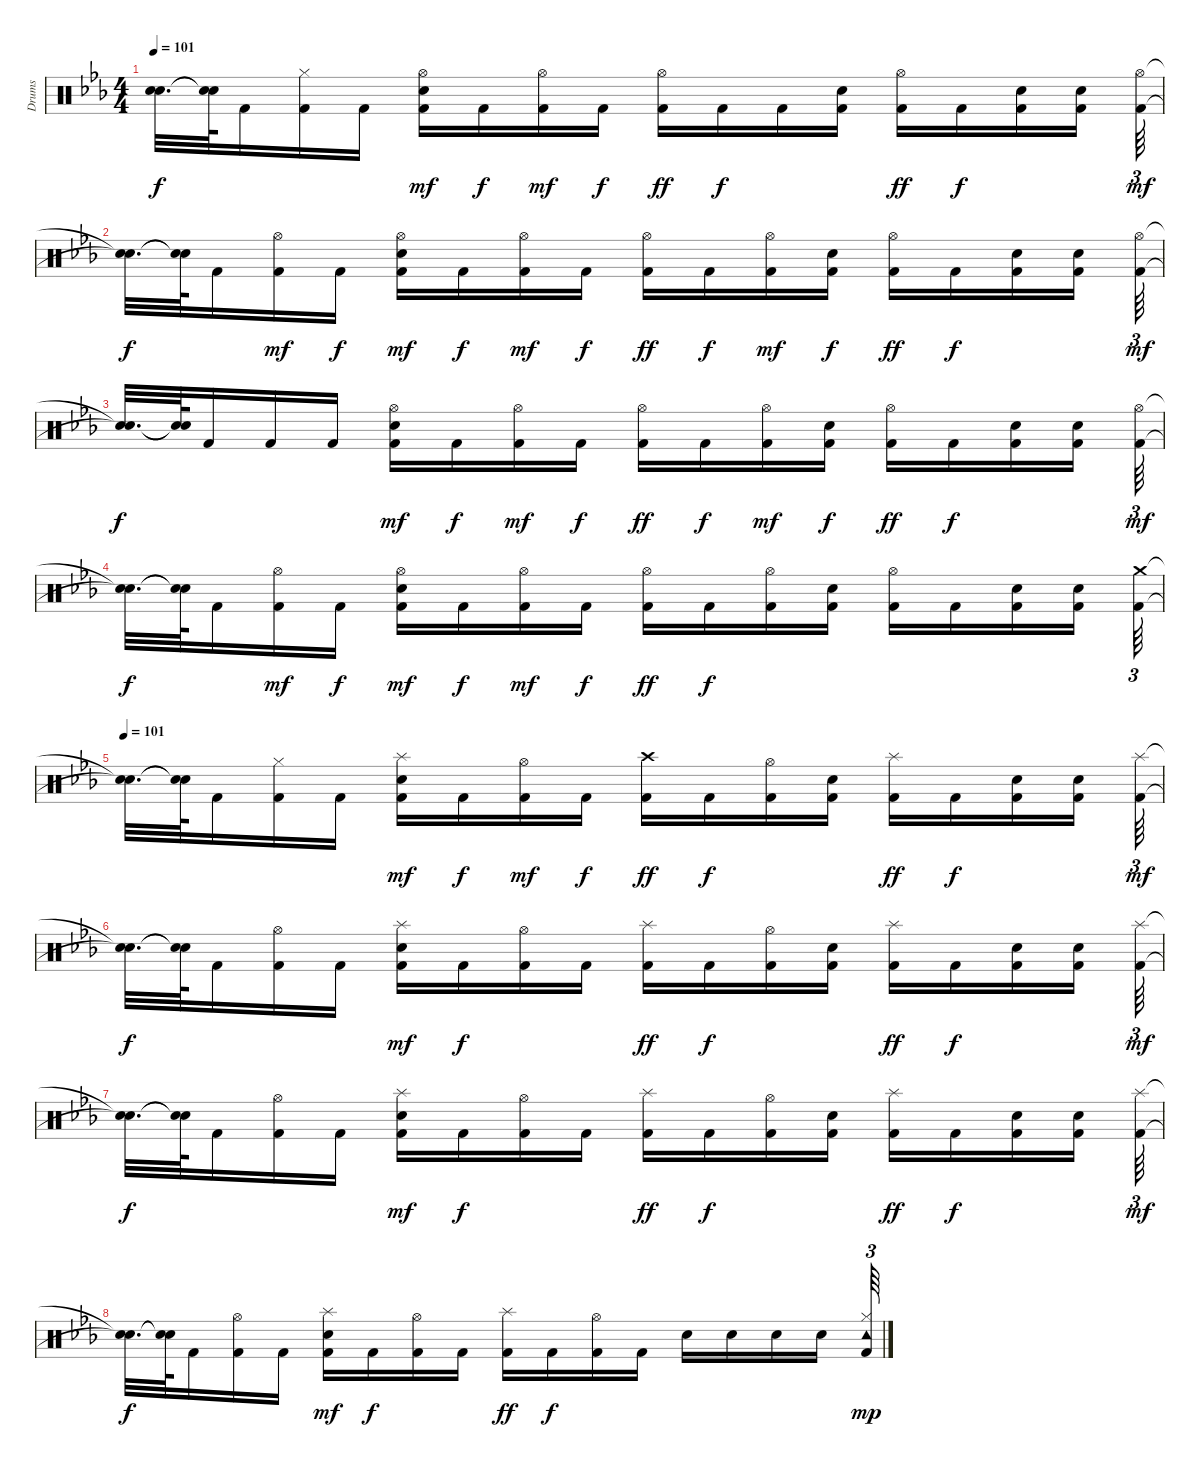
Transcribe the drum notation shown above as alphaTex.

\track ("Drums" "Drums") {instrument percussion}
\staff {score}
\articulation defaults
\ts (4 4)
\tempo 106
\tempo 101
\clef neutral
\ks cminor
("Snare (hit)"{t} "Snare (hit)"{t}).32{d dy f} ("Snare (hit)"{t} "Snare (hit)"{t}).64 "Kick (hit) 2".16 ("Kick (hit) 2" "Hi-Hat (closed)").16 "Kick (hit) 2".16 ("Kick (hit) 2" "Electric Snare (hit)" "Hi-Hat (open)").16{dy mf} "Kick (hit) 2".16{dy f} ("Kick (hit) 2" "Hi-Hat (open)").16{dy mf} "Kick (hit) 2".16{dy f} ("Kick (hit) 2" "Hi-Hat (open)").16{dy ff} "Kick (hit) 2".16{dy f} "Kick (hit) 2".16 ("Kick (hit) 2" "Electric Snare (hit)").16 ("Kick (hit) 2" "Hi-Hat (open)").16{dy ff} "Kick (hit) 2".16{dy f} ("Kick (hit) 2" "Electric Snare (hit)").16 ("Kick (hit) 2" "Electric Snare (hit)").16 ("Kick (hit) 2" "Hi-Hat (open)").64{tu (3 2) dy mf} |
("Snare (hit)"{t} "Snare (hit)"{t}).32{d dy f} ("Snare (hit)"{t} "Snare (hit)"{t}).64 "Kick (hit) 2".16 ("Kick (hit) 2" "Hi-Hat (open)").16{dy mf} "Kick (hit) 2".16{dy f} ("Kick (hit) 2" "Electric Snare (hit)" "Hi-Hat (open)").16{dy mf} "Kick (hit) 2".16{dy f} ("Kick (hit) 2" "Hi-Hat (open)").16{dy mf} "Kick (hit) 2".16{dy f} ("Kick (hit) 2" "Hi-Hat (open)").16{dy ff} "Kick (hit) 2".16{dy f} ("Kick (hit) 2" "Hi-Hat (open)").16{dy mf} ("Kick (hit) 2" "Electric Snare (hit)").16{dy f} ("Kick (hit) 2" "Hi-Hat (open)").16{dy ff} "Kick (hit) 2".16{dy f} ("Kick (hit) 2" "Electric Snare (hit)").16 ("Kick (hit) 2" "Electric Snare (hit)").16 ("Kick (hit) 2" "Hi-Hat (open)").64{tu (3 2) dy mf} |
("Snare (hit)"{t} "Snare (hit)"{t}).32{d dy f} ("Snare (hit)"{t} "Snare (hit)"{t}).64 "Kick (hit) 2".16 "Kick (hit) 2".16 "Kick (hit) 2".16 ("Kick (hit) 2" "Electric Snare (hit)" "Hi-Hat (open)").16{dy mf} "Kick (hit) 2".16{dy f} ("Kick (hit) 2" "Hi-Hat (open)").16{dy mf} "Kick (hit) 2".16{dy f} ("Kick (hit) 2" "Hi-Hat (open)").16{dy ff} "Kick (hit) 2".16{dy f} ("Kick (hit) 2" "Hi-Hat (open)").16{dy mf} ("Kick (hit) 2" "Electric Snare (hit)").16{dy f} ("Kick (hit) 2" "Hi-Hat (open)").16{dy ff} "Kick (hit) 2".16{dy f} ("Kick (hit) 2" "Electric Snare (hit)").16 ("Kick (hit) 2" "Electric Snare (hit)").16 ("Kick (hit) 2" "Hi-Hat (open)").64{tu (3 2) dy mf} |
("Snare (hit)"{t} "Snare (hit)"{t}).32{d dy f} ("Snare (hit)"{t} "Snare (hit)"{t}).64 "Kick (hit) 2".16 ("Kick (hit) 2" "Hi-Hat (open)").16{dy mf} "Kick (hit) 2".16{dy f} ("Kick (hit) 2" "Electric Snare (hit)" "Hi-Hat (open)").16{dy mf} "Kick (hit) 2".16{dy f} ("Kick (hit) 2" "Hi-Hat (open)").16{dy mf} "Kick (hit) 2".16{dy f} ("Kick (hit) 2" "Hi-Hat (open)").16{dy ff} "Kick (hit) 2".16{dy f} ("Kick (hit) 2" "Hi-Hat (open)").16 ("Kick (hit) 2" "Electric Snare (hit)").16 ("Kick (hit) 2" "Hi-Hat (open)").16 "Kick (hit) 2".16 ("Kick (hit) 2" "Electric Snare (hit)").16 ("Kick (hit) 2" "Electric Snare (hit)").16 ("Kick (hit) 2" "Crash medium (hit)").64{tu (3 2)} |
\tempo 106
\tempo 101
("Snare (hit)"{t} "Snare (hit)"{t}).32{d} ("Snare (hit)"{t} "Snare (hit)"{t}).64 "Kick (hit) 2".16 ("Kick (hit) 2" "Hi-Hat (closed)").16 "Kick (hit) 2".16 ("Kick (hit) 2" "Electric Snare (hit)" "Splash (hit)").16{dy mf} "Kick (hit) 2".16{dy f} ("Kick (hit) 2" "Hi-Hat (open)").16{dy mf} "Kick (hit) 2".16{dy f} ("Kick (hit) 2" "Crash high (hit)").16{dy ff} "Kick (hit) 2".16{dy f} ("Kick (hit) 2" "Hi-Hat (open)").16 ("Kick (hit) 2" "Electric Snare (hit)").16 ("Kick (hit) 2" "Splash (hit)").16{dy ff} "Kick (hit) 2".16{dy f} ("Kick (hit) 2" "Electric Snare (hit)").16 ("Kick (hit) 2" "Electric Snare (hit)").16 ("Kick (hit) 2" "Splash (hit)").64{tu (3 2) dy mf} |
("Snare (hit)"{t} "Snare (hit)"{t}).32{d dy f} ("Snare (hit)"{t} "Snare (hit)"{t}).64 "Kick (hit) 2".16 ("Kick (hit) 2" "Hi-Hat (open)").16 "Kick (hit) 2".16 ("Kick (hit) 2" "Electric Snare (hit)" "Splash (hit)").16{dy mf} "Kick (hit) 2".16{dy f} ("Kick (hit) 2" "Hi-Hat (open)").16 "Kick (hit) 2".16 ("Kick (hit) 2" "Splash (hit)").16{dy ff} "Kick (hit) 2".16{dy f} ("Kick (hit) 2" "Hi-Hat (open)").16 ("Kick (hit) 2" "Electric Snare (hit)").16 ("Kick (hit) 2" "Splash (hit)").16{dy ff} "Kick (hit) 2".16{dy f} ("Kick (hit) 2" "Electric Snare (hit)").16 ("Kick (hit) 2" "Electric Snare (hit)").16 ("Splash (hit)" "Kick (hit) 2").64{tu (3 2) dy mf} |
("Snare (hit)"{t} "Snare (hit)"{t}).32{d dy f} ("Snare (hit)"{t} "Snare (hit)"{t}).64 "Kick (hit) 2".16 ("Kick (hit) 2" "Hi-Hat (open)").16 "Kick (hit) 2".16 ("Kick (hit) 2" "Electric Snare (hit)" "Splash (hit)").16{dy mf} "Kick (hit) 2".16{dy f} ("Kick (hit) 2" "Hi-Hat (open)").16 "Kick (hit) 2".16 ("Kick (hit) 2" "Splash (hit)").16{dy ff} "Kick (hit) 2".16{dy f} ("Kick (hit) 2" "Hi-Hat (open)").16 ("Kick (hit) 2" "Electric Snare (hit)").16 ("Kick (hit) 2" "Splash (hit)").16{dy ff} "Kick (hit) 2".16{dy f} ("Kick (hit) 2" "Electric Snare (hit)").16 ("Kick (hit) 2" "Electric Snare (hit)").16 ("Kick (hit) 2" "Splash (hit)").64{tu (3 2) dy mf} |
("Snare (hit)"{t} "Snare (hit)"{t}).32{d dy f} ("Snare (hit)"{t} "Snare (hit)"{t}).64 "Kick (hit) 2".16 ("Kick (hit) 2" "Hi-Hat (open)").16 "Kick (hit) 2".16 ("Kick (hit) 2" "Electric Snare (hit)" "Splash (hit)").16{dy mf} "Kick (hit) 2".16{dy f} ("Kick (hit) 2" "Hi-Hat (open)").16 "Kick (hit) 2".16 ("Kick (hit) 2" "Splash (hit)").16{dy ff} "Kick (hit) 2".16{dy f} ("Kick (hit) 2" "Hi-Hat (open)").16 "Kick (hit) 2".16 "Electric Snare (hit)".16 "Electric Snare (hit)".16 "Electric Snare (hit)".16 "Electric Snare (hit)".16 ("Kick (hit) 2" "Hi-Hat (closed)" "Tambourine (hit)").64{tu (3 2) dy mp}
